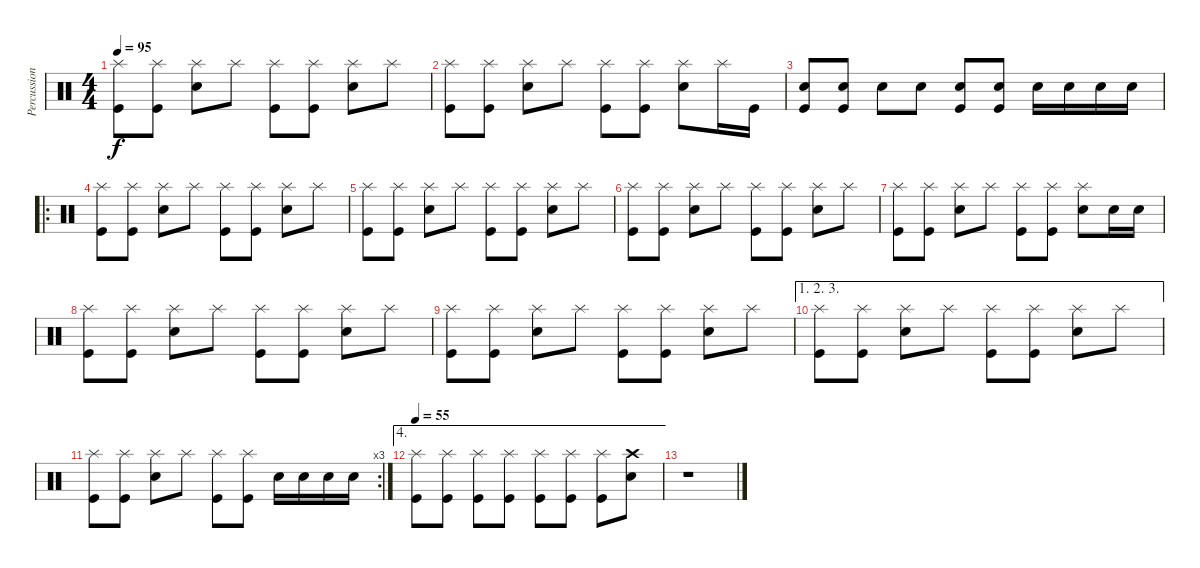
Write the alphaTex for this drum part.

\track ("Percussions" "Percussion") {instrument percussion}
\staff {score}
\articulation defaults
\ts (4 4)
\tempo 95
\clef neutral
\ks c
("Splash (hit)" "Kick (hit)").8{dy f} ("Splash (hit)" "Kick (hit)").8 ("Splash (hit)" "Electric Snare (hit)").8 "Splash (hit)".8 ("Splash (hit)" "Kick (hit)").8 ("Splash (hit)" "Kick (hit)").8 ("Splash (hit)" "Electric Snare (hit)").8 "Splash (hit)".8 |
("Splash (hit)" "Kick (hit)").8 ("Splash (hit)" "Kick (hit)").8 ("Splash (hit)" "Electric Snare (hit)").8 "Splash (hit)".8 ("Splash (hit)" "Kick (hit)").8 ("Splash (hit)" "Kick (hit)").8 ("Splash (hit)" "Electric Snare (hit)").8 "Splash (hit)".16 "Kick (hit)".16 |
("Electric Snare (hit)" "Kick (hit)").8 ("Electric Snare (hit)" "Kick (hit)").8 "Electric Snare (hit)".8 "Electric Snare (hit)".8 ("Electric Snare (hit)" "Kick (hit)").8 ("Electric Snare (hit)" "Kick (hit)").8 "Snare (hit) 2".16 "Snare (hit) 2".16 "Snare (hit) 2".16 "Snare (hit) 2".16 |
\ro
("Splash (hit)" "Kick (hit)").8 ("Splash (hit)" "Kick (hit)").8 ("Splash (hit)" "Electric Snare (hit)").8 "Splash (hit)".8 ("Splash (hit)" "Kick (hit)").8 ("Splash (hit)" "Kick (hit)").8 ("Splash (hit)" "Electric Snare (hit)").8 "Splash (hit)".8 |
("Splash (hit)" "Kick (hit)").8 ("Splash (hit)" "Kick (hit)").8 ("Splash (hit)" "Electric Snare (hit)").8 "Splash (hit)".8 ("Splash (hit)" "Kick (hit)").8 ("Splash (hit)" "Kick (hit)").8 ("Splash (hit)" "Electric Snare (hit)").8 "Splash (hit)".8 |
("Splash (hit)" "Kick (hit)").8 ("Splash (hit)" "Kick (hit)").8 ("Splash (hit)" "Electric Snare (hit)").8 "Splash (hit)".8 ("Splash (hit)" "Kick (hit)").8 ("Splash (hit)" "Kick (hit)").8 ("Splash (hit)" "Electric Snare (hit)").8 "Splash (hit)".8 |
("Splash (hit)" "Kick (hit)").8 ("Splash (hit)" "Kick (hit)").8 ("Splash (hit)" "Electric Snare (hit)").8 "Splash (hit)".8 ("Splash (hit)" "Kick (hit)").8 ("Splash (hit)" "Kick (hit)").8 ("Splash (hit)" "Electric Snare (hit)").8 "Snare (hit) 2".16 "Snare (hit) 2".16 |
("Splash (hit)" "Kick (hit)").8 ("Splash (hit)" "Kick (hit)").8 ("Splash (hit)" "Electric Snare (hit)").8 "Splash (hit)".8 ("Splash (hit)" "Kick (hit)").8 ("Splash (hit)" "Kick (hit)").8 ("Splash (hit)" "Electric Snare (hit)").8 "Splash (hit)".8 |
("Splash (hit)" "Kick (hit)").8 ("Splash (hit)" "Kick (hit)").8 ("Splash (hit)" "Electric Snare (hit)").8 "Splash (hit)".8 ("Splash (hit)" "Kick (hit)").8 ("Splash (hit)" "Kick (hit)").8 ("Splash (hit)" "Electric Snare (hit)").8 "Splash (hit)".8 |
\ae (1 2 3)
("Splash (hit)" "Kick (hit)").8 ("Splash (hit)" "Kick (hit)").8 ("Splash (hit)" "Electric Snare (hit)").8 "Splash (hit)".8 ("Splash (hit)" "Kick (hit)").8 ("Splash (hit)" "Kick (hit)").8 ("Splash (hit)" "Electric Snare (hit)").8 "Splash (hit)".8 |
\rc 3
("Splash (hit)" "Kick (hit)").8 ("Splash (hit)" "Kick (hit)").8 ("Splash (hit)" "Electric Snare (hit)").8 "Splash (hit)".8 ("Splash (hit)" "Kick (hit)").8 ("Splash (hit)" "Kick (hit)").8 "Snare (hit) 2".16 "Snare (hit) 2".16 "Snare (hit) 2".16 "Snare (hit) 2".16 |
\ae 4
\tempo 55
("Splash (hit)" "Kick (hit)").8 ("Splash (hit)" "Kick (hit)").8 ("Splash (hit)" "Kick (hit)").8 ("Splash (hit)" "Kick (hit)").8 ("Splash (hit)" "Kick (hit)").8 ("Splash (hit)" "Kick (hit)").8 ("Splash (hit)" "Kick (hit)").8 ("Crash high (hit)" "Electric Snare (hit)").8 |
r.1
